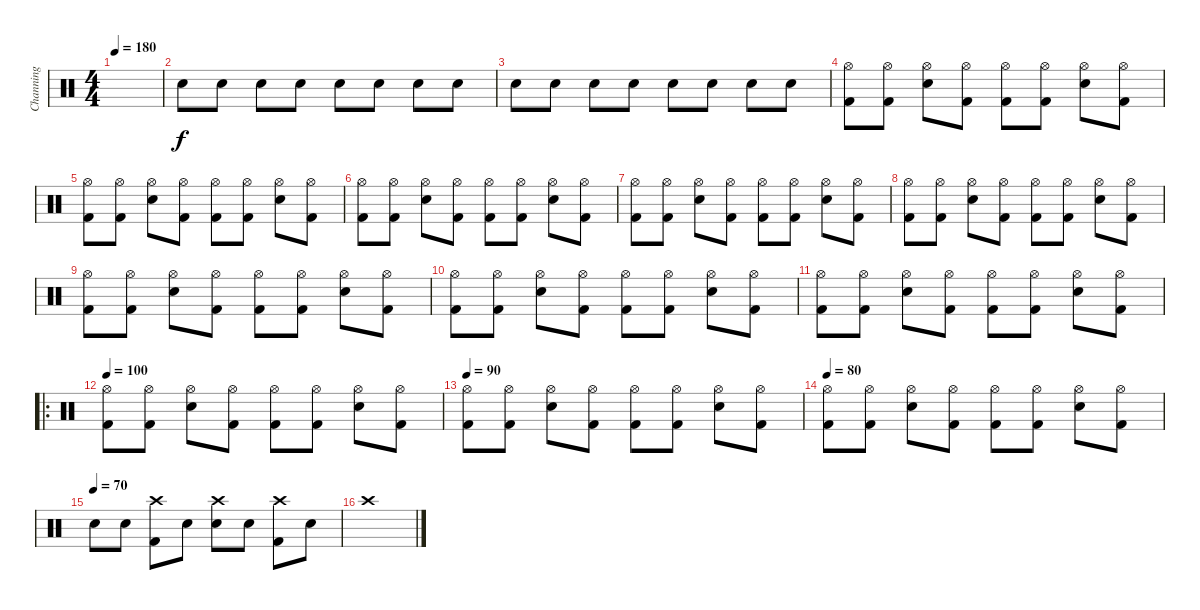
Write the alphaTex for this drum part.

\track ("Channing" "Channing") {instrument percussion}
\staff {score}
\articulation defaults
\ts (4 4)
\tempo 180
\clef neutral
\ks c
|
"Snare (hit) 2".8{volume 16} "Snare (hit) 2".8 "Snare (hit) 2".8 "Snare (hit) 2".8 "Snare (hit) 2".8 "Snare (hit) 2".8 "Snare (hit) 2".8 "Snare (hit) 2".8 |
"Snare (hit) 2".8 "Snare (hit) 2".8 "Snare (hit) 2".8 "Snare (hit) 2".8 "Snare (hit) 2".8 "Snare (hit) 2".8 "Snare (hit) 2".8 "Snare (hit) 2".8 |
("Hi-Hat (open)" "Kick (hit) 2").8 ("Hi-Hat (open)" "Kick (hit) 2").8 ("Hi-Hat (open)" "Snare (hit) 2").8 ("Hi-Hat (open)" "Kick (hit) 2").8 ("Hi-Hat (open)" "Kick (hit) 2").8 ("Hi-Hat (open)" "Kick (hit) 2").8 ("Hi-Hat (open)" "Snare (hit) 2").8 ("Hi-Hat (open)" "Kick (hit) 2").8 |
("Hi-Hat (open)" "Kick (hit) 2").8 ("Hi-Hat (open)" "Kick (hit) 2").8 ("Hi-Hat (open)" "Snare (hit) 2").8 ("Hi-Hat (open)" "Kick (hit) 2").8 ("Hi-Hat (open)" "Kick (hit) 2").8 ("Hi-Hat (open)" "Kick (hit) 2").8 ("Hi-Hat (open)" "Snare (hit) 2").8 ("Hi-Hat (open)" "Kick (hit) 2").8 |
("Hi-Hat (open)" "Kick (hit) 2").8 ("Hi-Hat (open)" "Kick (hit) 2").8 ("Hi-Hat (open)" "Snare (hit) 2").8 ("Hi-Hat (open)" "Kick (hit) 2").8 ("Hi-Hat (open)" "Kick (hit) 2").8 ("Hi-Hat (open)" "Kick (hit) 2").8 ("Hi-Hat (open)" "Snare (hit) 2").8 ("Hi-Hat (open)" "Kick (hit) 2").8 |
("Hi-Hat (open)" "Kick (hit) 2").8 ("Hi-Hat (open)" "Kick (hit) 2").8 ("Hi-Hat (open)" "Snare (hit) 2").8 ("Hi-Hat (open)" "Kick (hit) 2").8 ("Hi-Hat (open)" "Kick (hit) 2").8 ("Hi-Hat (open)" "Kick (hit) 2").8 ("Hi-Hat (open)" "Snare (hit) 2").8 ("Hi-Hat (open)" "Kick (hit) 2").8 |
("Hi-Hat (open)" "Kick (hit) 2").8 ("Hi-Hat (open)" "Kick (hit) 2").8 ("Hi-Hat (open)" "Snare (hit) 2").8 ("Hi-Hat (open)" "Kick (hit) 2").8 ("Hi-Hat (open)" "Kick (hit) 2").8 ("Hi-Hat (open)" "Kick (hit) 2").8 ("Hi-Hat (open)" "Snare (hit) 2").8 ("Hi-Hat (open)" "Kick (hit) 2").8 |
("Hi-Hat (open)" "Kick (hit) 2").8 ("Hi-Hat (open)" "Kick (hit) 2").8 ("Hi-Hat (open)" "Snare (hit) 2").8 ("Hi-Hat (open)" "Kick (hit) 2").8 ("Hi-Hat (open)" "Kick (hit) 2").8 ("Hi-Hat (open)" "Kick (hit) 2").8 ("Hi-Hat (open)" "Snare (hit) 2").8 ("Hi-Hat (open)" "Kick (hit) 2").8 |
("Hi-Hat (open)" "Kick (hit) 2").8 ("Hi-Hat (open)" "Kick (hit) 2").8 ("Hi-Hat (open)" "Snare (hit) 2").8 ("Hi-Hat (open)" "Kick (hit) 2").8 ("Hi-Hat (open)" "Kick (hit) 2").8 ("Hi-Hat (open)" "Kick (hit) 2").8 ("Hi-Hat (open)" "Snare (hit) 2").8 ("Hi-Hat (open)" "Kick (hit) 2").8 |
("Hi-Hat (open)" "Kick (hit) 2").8 ("Hi-Hat (open)" "Kick (hit) 2").8 ("Hi-Hat (open)" "Snare (hit) 2").8 ("Hi-Hat (open)" "Kick (hit) 2").8 ("Hi-Hat (open)" "Kick (hit) 2").8 ("Hi-Hat (open)" "Kick (hit) 2").8 ("Hi-Hat (open)" "Snare (hit) 2").8 ("Hi-Hat (open)" "Kick (hit) 2").8 |
\ro
\tempo 100
("Hi-Hat (open)" "Kick (hit) 2").8 ("Hi-Hat (open)" "Kick (hit) 2").8 ("Hi-Hat (open)" "Snare (hit) 2").8 ("Hi-Hat (open)" "Kick (hit) 2").8 ("Hi-Hat (open)" "Kick (hit) 2").8 ("Hi-Hat (open)" "Kick (hit) 2").8 ("Hi-Hat (open)" "Snare (hit) 2").8 ("Hi-Hat (open)" "Kick (hit) 2").8 |
\tempo 90
("Hi-Hat (open)" "Kick (hit) 2").8 ("Hi-Hat (open)" "Kick (hit) 2").8 ("Hi-Hat (open)" "Snare (hit) 2").8 ("Hi-Hat (open)" "Kick (hit) 2").8 ("Hi-Hat (open)" "Kick (hit) 2").8 ("Hi-Hat (open)" "Kick (hit) 2").8 ("Hi-Hat (open)" "Snare (hit) 2").8 ("Hi-Hat (open)" "Kick (hit) 2").8 |
\tempo 80
("Hi-Hat (open)" "Kick (hit) 2").8 ("Hi-Hat (open)" "Kick (hit) 2").8 ("Hi-Hat (open)" "Snare (hit) 2").8 ("Hi-Hat (open)" "Kick (hit) 2").8 ("Hi-Hat (open)" "Kick (hit) 2").8 ("Hi-Hat (open)" "Kick (hit) 2").8 ("Hi-Hat (open)" "Snare (hit) 2").8 ("Hi-Hat (open)" "Kick (hit) 2").8 |
\tempo (70)
"Snare (hit) 2".8 "Snare (hit) 2".8 ("Crash high (hit)" "Kick (hit) 2").8 "Snare (hit) 2".8 ("Crash high (hit)" "Snare (hit) 2").8 "Snare (hit) 2".8 ("Crash high (hit)" "Kick (hit) 2").8 "Snare (hit) 2".8 |
"Crash high (hit)".1
